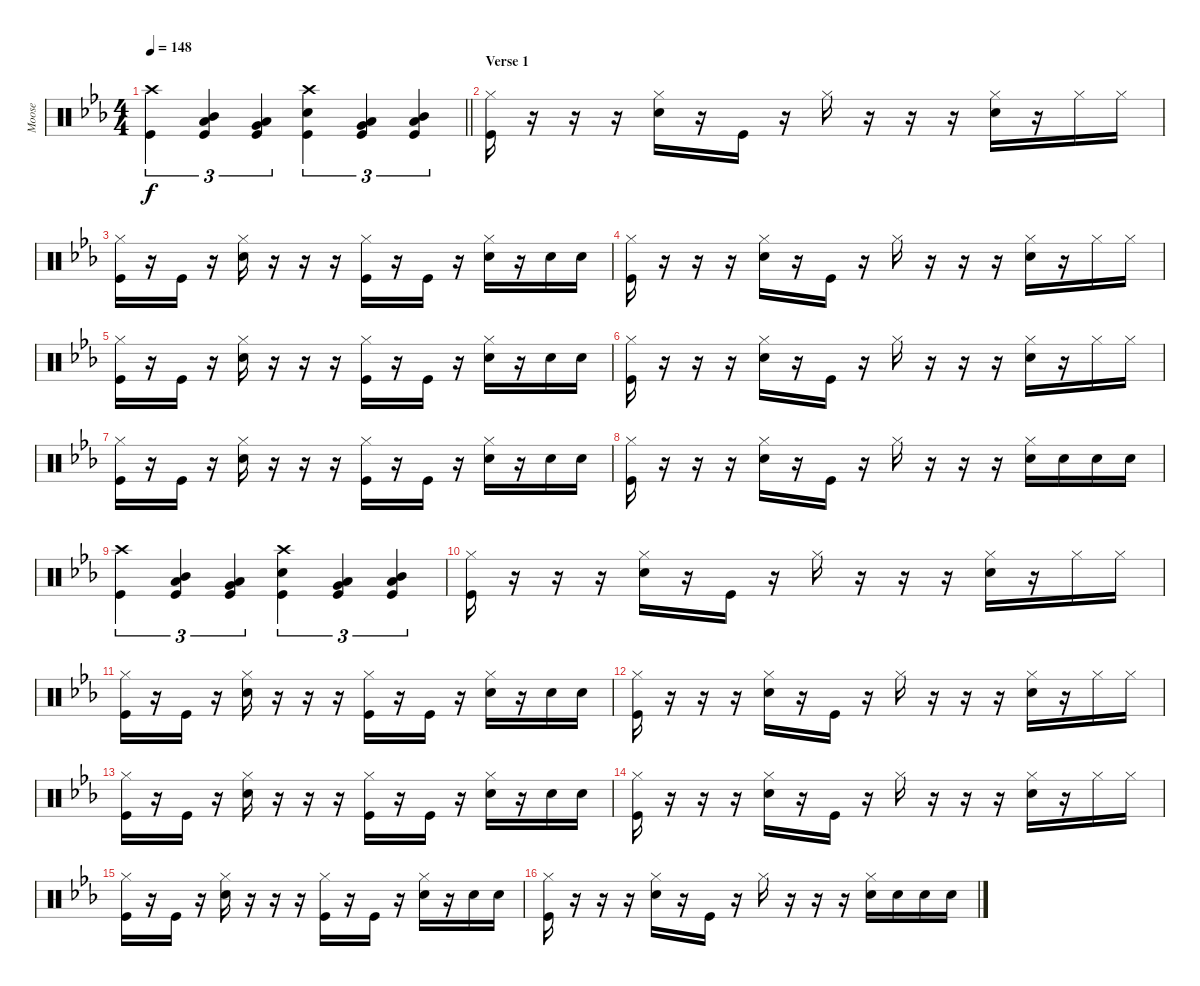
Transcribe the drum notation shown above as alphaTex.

\track ("Moose" "Moose") {instrument percussion}
\staff {score}
\articulation defaults
\ts (4 4)
\tempo 148
\clef neutral
\barLineRight lightlight
\ks eb
("Crash high (hit)" "Kick (hit)").4{tu (3 2) dy f} ("Mid Tom (hit)" "Low Tom (hit)" "Kick (hit)").4{tu (3 2)} ("Low Tom (hit)" "Very Low Tom (hit)" "Kick (hit)").4{tu (3 2)} ("Crash high (hit)" "Snare (hit) 2" "Kick (hit)").4{tu (3 2)} ("Low Tom (hit)" "Very Low Tom (hit)" "Kick (hit)").4{tu (3 2)} ("Mid Tom (hit)" "Low Tom (hit)" "Kick (hit)").4{tu (3 2)} |
\section ("" "Verse 1")
("Hi-Hat (closed)" "Kick (hit)").16 r.16 r.16 r.16 ("Hi-Hat (closed)" "Snare (hit) 2").16 r.16 "Kick (hit)".16 r.16 "Hi-Hat (closed)".16 r.16 r.16 r.16 ("Hi-Hat (closed)" "Snare (hit) 2").16 r.16 "Hi-Hat (closed)".16 "Hi-Hat (closed)".16 |
("Hi-Hat (closed)" "Kick (hit)").16 r.16 "Kick (hit)".16 r.16 ("Hi-Hat (closed)" "Snare (hit) 2").16 r.16 r.16 r.16 ("Hi-Hat (closed)" "Kick (hit)").16 r.16 "Kick (hit)".16 r.16 ("Hi-Hat (closed)" "Snare (hit) 2").16 r.16 "Snare (hit) 2".16 "Snare (hit) 2".16 |
("Hi-Hat (closed)" "Kick (hit)").16 r.16 r.16 r.16 ("Hi-Hat (closed)" "Snare (hit) 2").16 r.16 "Kick (hit)".16 r.16 "Hi-Hat (closed)".16 r.16 r.16 r.16 ("Hi-Hat (closed)" "Snare (hit) 2").16 r.16 "Hi-Hat (closed)".16 "Hi-Hat (closed)".16 |
("Hi-Hat (closed)" "Kick (hit)").16 r.16 "Kick (hit)".16 r.16 ("Hi-Hat (closed)" "Snare (hit) 2").16 r.16 r.16 r.16 ("Hi-Hat (closed)" "Kick (hit)").16 r.16 "Kick (hit)".16 r.16 ("Hi-Hat (closed)" "Snare (hit) 2").16 r.16 "Snare (hit) 2".16 "Snare (hit) 2".16 |
("Hi-Hat (closed)" "Kick (hit)").16 r.16 r.16 r.16 ("Hi-Hat (closed)" "Snare (hit) 2").16 r.16 "Kick (hit)".16 r.16 "Hi-Hat (closed)".16 r.16 r.16 r.16 ("Hi-Hat (closed)" "Snare (hit) 2").16 r.16 "Hi-Hat (closed)".16 "Hi-Hat (closed)".16 |
("Hi-Hat (closed)" "Kick (hit)").16 r.16 "Kick (hit)".16 r.16 ("Hi-Hat (closed)" "Snare (hit) 2").16 r.16 r.16 r.16 ("Hi-Hat (closed)" "Kick (hit)").16 r.16 "Kick (hit)".16 r.16 ("Hi-Hat (closed)" "Snare (hit) 2").16 r.16 "Snare (hit) 2".16 "Snare (hit) 2".16 |
("Hi-Hat (closed)" "Kick (hit)").16 r.16 r.16 r.16 ("Hi-Hat (closed)" "Snare (hit) 2").16 r.16 "Kick (hit)".16 r.16 "Hi-Hat (closed)".16 r.16 r.16 r.16 ("Hi-Hat (closed)" "Snare (hit) 2").16 "Snare (hit) 2".16 "Snare (hit) 2".16 "Snare (hit) 2".16 |
("Crash high (hit)" "Kick (hit)").4{tu (3 2)} ("Mid Tom (hit)" "Low Tom (hit)" "Kick (hit)").4{tu (3 2)} ("Low Tom (hit)" "Very Low Tom (hit)" "Kick (hit)").4{tu (3 2)} ("Crash high (hit)" "Snare (hit) 2" "Kick (hit)").4{tu (3 2)} ("Low Tom (hit)" "Very Low Tom (hit)" "Kick (hit)").4{tu (3 2)} ("Mid Tom (hit)" "Low Tom (hit)" "Kick (hit)").4{tu (3 2)} |
("Hi-Hat (closed)" "Kick (hit)").16 r.16 r.16 r.16 ("Hi-Hat (closed)" "Snare (hit) 2").16 r.16 "Kick (hit)".16 r.16 "Hi-Hat (closed)".16 r.16 r.16 r.16 ("Hi-Hat (closed)" "Snare (hit) 2").16 r.16 "Hi-Hat (closed)".16 "Hi-Hat (closed)".16 |
("Hi-Hat (closed)" "Kick (hit)").16 r.16 "Kick (hit)".16 r.16 ("Hi-Hat (closed)" "Snare (hit) 2").16 r.16 r.16 r.16 ("Hi-Hat (closed)" "Kick (hit)").16 r.16 "Kick (hit)".16 r.16 ("Hi-Hat (closed)" "Snare (hit) 2").16 r.16 "Snare (hit) 2".16 "Snare (hit) 2".16 |
("Hi-Hat (closed)" "Kick (hit)").16 r.16 r.16 r.16 ("Hi-Hat (closed)" "Snare (hit) 2").16 r.16 "Kick (hit)".16 r.16 "Hi-Hat (closed)".16 r.16 r.16 r.16 ("Hi-Hat (closed)" "Snare (hit) 2").16 r.16 "Hi-Hat (closed)".16 "Hi-Hat (closed)".16 |
("Hi-Hat (closed)" "Kick (hit)").16 r.16 "Kick (hit)".16 r.16 ("Hi-Hat (closed)" "Snare (hit) 2").16 r.16 r.16 r.16 ("Hi-Hat (closed)" "Kick (hit)").16 r.16 "Kick (hit)".16 r.16 ("Hi-Hat (closed)" "Snare (hit) 2").16 r.16 "Snare (hit) 2".16 "Snare (hit) 2".16 |
("Hi-Hat (closed)" "Kick (hit)").16 r.16 r.16 r.16 ("Hi-Hat (closed)" "Snare (hit) 2").16 r.16 "Kick (hit)".16 r.16 "Hi-Hat (closed)".16 r.16 r.16 r.16 ("Hi-Hat (closed)" "Snare (hit) 2").16 r.16 "Hi-Hat (closed)".16 "Hi-Hat (closed)".16 |
("Hi-Hat (closed)" "Kick (hit)").16 r.16 "Kick (hit)".16 r.16 ("Hi-Hat (closed)" "Snare (hit) 2").16 r.16 r.16 r.16 ("Hi-Hat (closed)" "Kick (hit)").16 r.16 "Kick (hit)".16 r.16 ("Hi-Hat (closed)" "Snare (hit) 2").16 r.16 "Snare (hit) 2".16 "Snare (hit) 2".16 |
("Hi-Hat (closed)" "Kick (hit)").16 r.16 r.16 r.16 ("Hi-Hat (closed)" "Snare (hit) 2").16 r.16 "Kick (hit)".16 r.16 "Hi-Hat (closed)".16 r.16 r.16 r.16 ("Hi-Hat (closed)" "Snare (hit) 2").16 "Snare (hit) 2".16 "Snare (hit) 2".16 "Snare (hit) 2".16
